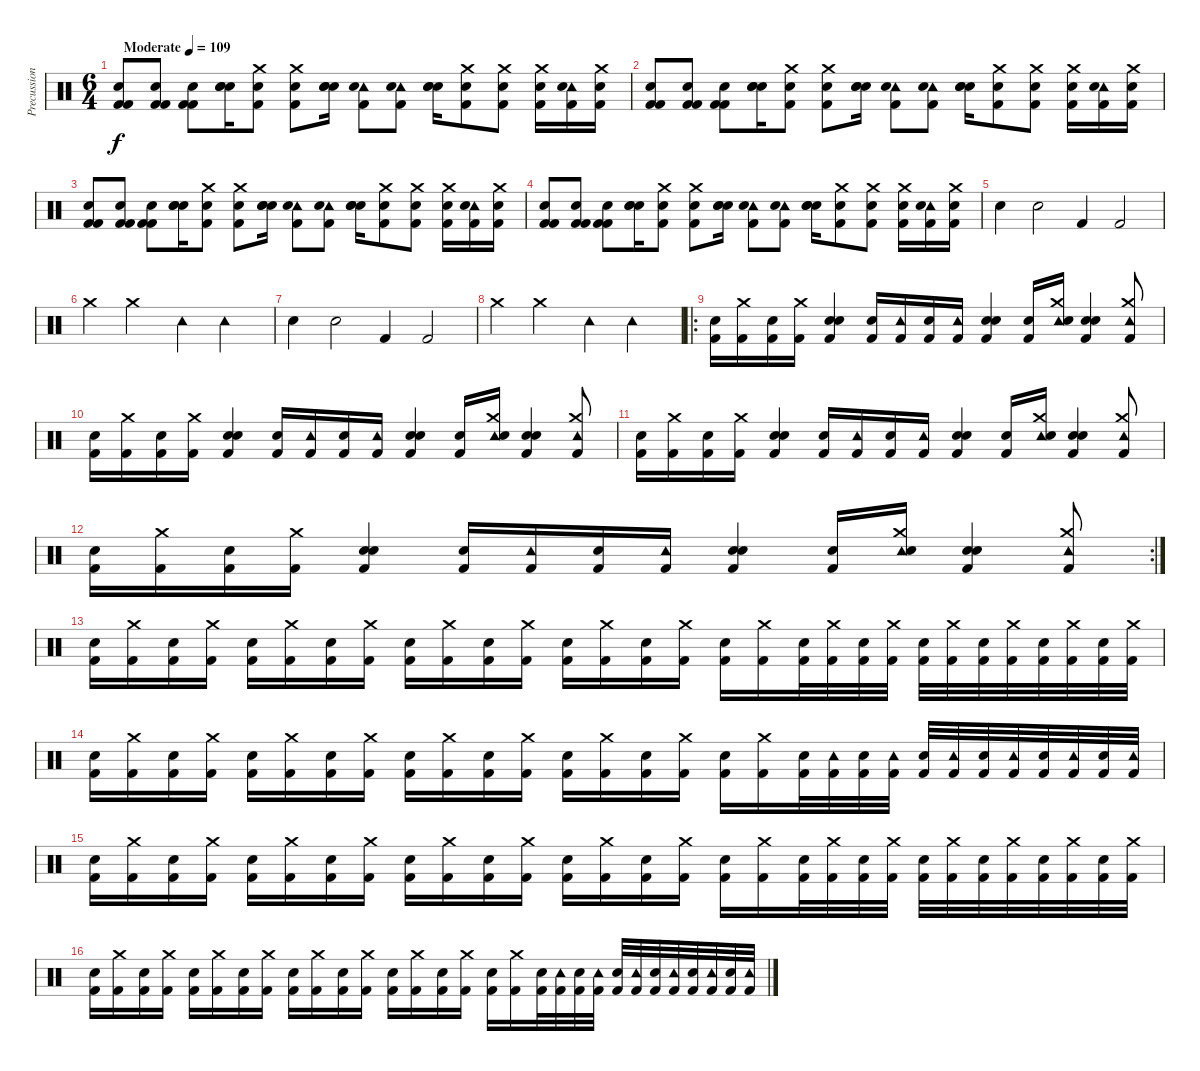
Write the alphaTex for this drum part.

\track ("Precussion" "Precussion") {instrument percussion}
\staff {score}
\articulation defaults
\ts (6 4)
\tempo (109 "Moderate")
\clef neutral
\ks c
("Electric Snare (hit)" "Kick (hit) 2" "Kick (hit) 2").8{dy f} ("Electric Snare (hit)" "Kick (hit) 2" "Kick (hit) 2").8 ("Electric Snare (hit)" "Kick (hit) 2" "Kick (hit) 2").8 ("Electric Snare (hit)" "Electric Snare (hit)" "Electric Snare (hit)").16 ("Crash medium (hit)" "Electric Snare (hit)" "Kick (hit) 2").8 ("Crash medium (hit)" "Electric Snare (hit)" "Kick (hit) 2").8 ("Electric Snare (hit)" "Electric Snare (hit)" "Electric Snare (hit)").16 ("Tambourine (hit)" "Electric Snare (hit)" "Kick (hit) 2").8 ("Tambourine (hit)" "Electric Snare (hit)" "Kick (hit) 2").8 ("Electric Snare (hit)" "Electric Snare (hit)" "Electric Snare (hit)").16 ("Crash medium (hit)" "Electric Snare (hit)" "Kick (hit) 2").8 ("Crash medium (hit)" "Electric Snare (hit)" "Kick (hit) 2").8 ("Crash medium (hit)" "Electric Snare (hit)" "Kick (hit) 2").16 ("Tambourine (hit)" "Electric Snare (hit)" "Kick (hit) 2").16 ("Crash medium (hit)" "Electric Snare (hit)" "Kick (hit) 2").16 |
("Electric Snare (hit)" "Kick (hit) 2" "Kick (hit) 2").8 ("Electric Snare (hit)" "Kick (hit) 2" "Kick (hit) 2").8 ("Electric Snare (hit)" "Kick (hit) 2" "Kick (hit) 2").8 ("Electric Snare (hit)" "Electric Snare (hit)" "Electric Snare (hit)").16 ("Crash medium (hit)" "Electric Snare (hit)" "Kick (hit) 2").8 ("Crash medium (hit)" "Electric Snare (hit)" "Kick (hit) 2").8 ("Electric Snare (hit)" "Electric Snare (hit)" "Electric Snare (hit)").16 ("Tambourine (hit)" "Electric Snare (hit)" "Kick (hit) 2").8 ("Tambourine (hit)" "Electric Snare (hit)" "Kick (hit) 2").8 ("Electric Snare (hit)" "Electric Snare (hit)" "Electric Snare (hit)").16 ("Crash medium (hit)" "Electric Snare (hit)" "Kick (hit) 2").8 ("Crash medium (hit)" "Electric Snare (hit)" "Kick (hit) 2").8 ("Crash medium (hit)" "Electric Snare (hit)" "Kick (hit) 2").16 ("Tambourine (hit)" "Electric Snare (hit)" "Kick (hit) 2").16 ("Crash medium (hit)" "Electric Snare (hit)" "Kick (hit) 2").16 |
("Electric Snare (hit)" "Kick (hit) 2" "Kick (hit) 2").8 ("Electric Snare (hit)" "Kick (hit) 2" "Kick (hit) 2").8 ("Electric Snare (hit)" "Kick (hit) 2" "Kick (hit) 2").8 ("Electric Snare (hit)" "Electric Snare (hit)" "Electric Snare (hit)").16 ("Crash medium (hit)" "Electric Snare (hit)" "Kick (hit) 2").8 ("Crash medium (hit)" "Electric Snare (hit)" "Kick (hit) 2").8 ("Electric Snare (hit)" "Electric Snare (hit)" "Electric Snare (hit)").16 ("Tambourine (hit)" "Electric Snare (hit)" "Kick (hit) 2").8 ("Tambourine (hit)" "Electric Snare (hit)" "Kick (hit) 2").8 ("Electric Snare (hit)" "Electric Snare (hit)" "Electric Snare (hit)").16 ("Crash medium (hit)" "Electric Snare (hit)" "Kick (hit) 2").8 ("Crash medium (hit)" "Electric Snare (hit)" "Kick (hit) 2").8 ("Crash medium (hit)" "Electric Snare (hit)" "Kick (hit) 2").16 ("Tambourine (hit)" "Electric Snare (hit)" "Kick (hit) 2").16 ("Crash medium (hit)" "Electric Snare (hit)" "Kick (hit) 2").16 |
("Electric Snare (hit)" "Kick (hit) 2" "Kick (hit) 2").8 ("Electric Snare (hit)" "Kick (hit) 2" "Kick (hit) 2").8 ("Electric Snare (hit)" "Kick (hit) 2" "Kick (hit) 2").8 ("Electric Snare (hit)" "Electric Snare (hit)" "Electric Snare (hit)").16 ("Crash medium (hit)" "Electric Snare (hit)" "Kick (hit) 2").8 ("Crash medium (hit)" "Electric Snare (hit)" "Kick (hit) 2").8 ("Electric Snare (hit)" "Electric Snare (hit)" "Electric Snare (hit)").16 ("Tambourine (hit)" "Electric Snare (hit)" "Kick (hit) 2").8 ("Tambourine (hit)" "Electric Snare (hit)" "Kick (hit) 2").8 ("Electric Snare (hit)" "Electric Snare (hit)" "Electric Snare (hit)").16 ("Crash medium (hit)" "Electric Snare (hit)" "Kick (hit) 2").8 ("Crash medium (hit)" "Electric Snare (hit)" "Kick (hit) 2").8 ("Crash medium (hit)" "Electric Snare (hit)" "Kick (hit) 2").16 ("Tambourine (hit)" "Electric Snare (hit)" "Kick (hit) 2").16 ("Crash medium (hit)" "Electric Snare (hit)" "Kick (hit) 2").16 |
"Electric Snare (hit)".4 "Electric Snare (hit)".2 "Kick (hit) 2".4 "Kick (hit) 2".2 |
"Crash medium (hit)".4 "Crash medium (hit)".2 "Tambourine (hit)".4 "Tambourine (hit)".2 |
"Electric Snare (hit)".4 "Electric Snare (hit)".2 "Kick (hit) 2".4 "Kick (hit) 2".2 |
"Crash medium (hit)".4 "Crash medium (hit)".2 "Tambourine (hit)".4 "Tambourine (hit)".2 |
\ro
("Electric Snare (hit)" "Kick (hit) 2").16 ("Crash medium (hit)" "Kick (hit) 2").16 ("Electric Snare (hit)" "Kick (hit) 2").16 ("Crash medium (hit)" "Kick (hit) 2").16 ("Electric Snare (hit)" "Electric Snare (hit)" "Kick (hit) 2").4 ("Electric Snare (hit)" "Kick (hit) 2").16 ("Tambourine (hit)" "Kick (hit) 2").16 ("Electric Snare (hit)" "Kick (hit) 2").16 ("Tambourine (hit)" "Kick (hit) 2").16 ("Electric Snare (hit)" "Electric Snare (hit)" "Kick (hit) 2").4 ("Electric Snare (hit)" "Kick (hit) 2").16 ("Tambourine (hit)" "Crash medium (hit)" "Electric Snare (hit)").16 ("Electric Snare (hit)" "Electric Snare (hit)" "Kick (hit) 2").4 ("Crash medium (hit)" "Kick (hit) 2" "Tambourine (hit)").8 |
("Electric Snare (hit)" "Kick (hit) 2").16 ("Crash medium (hit)" "Kick (hit) 2").16 ("Electric Snare (hit)" "Kick (hit) 2").16 ("Crash medium (hit)" "Kick (hit) 2").16 ("Electric Snare (hit)" "Electric Snare (hit)" "Kick (hit) 2").4 ("Electric Snare (hit)" "Kick (hit) 2").16 ("Tambourine (hit)" "Kick (hit) 2").16 ("Electric Snare (hit)" "Kick (hit) 2").16 ("Tambourine (hit)" "Kick (hit) 2").16 ("Electric Snare (hit)" "Electric Snare (hit)" "Kick (hit) 2").4 ("Electric Snare (hit)" "Kick (hit) 2").16 ("Tambourine (hit)" "Crash medium (hit)" "Electric Snare (hit)").16 ("Electric Snare (hit)" "Electric Snare (hit)" "Kick (hit) 2").4 ("Crash medium (hit)" "Kick (hit) 2" "Tambourine (hit)").8 |
("Electric Snare (hit)" "Kick (hit) 2").16 ("Crash medium (hit)" "Kick (hit) 2").16 ("Electric Snare (hit)" "Kick (hit) 2").16 ("Crash medium (hit)" "Kick (hit) 2").16 ("Electric Snare (hit)" "Electric Snare (hit)" "Kick (hit) 2").4 ("Electric Snare (hit)" "Kick (hit) 2").16 ("Tambourine (hit)" "Kick (hit) 2").16 ("Electric Snare (hit)" "Kick (hit) 2").16 ("Tambourine (hit)" "Kick (hit) 2").16 ("Electric Snare (hit)" "Electric Snare (hit)" "Kick (hit) 2").4 ("Electric Snare (hit)" "Kick (hit) 2").16 ("Tambourine (hit)" "Crash medium (hit)" "Electric Snare (hit)").16 ("Electric Snare (hit)" "Electric Snare (hit)" "Kick (hit) 2").4 ("Crash medium (hit)" "Kick (hit) 2" "Tambourine (hit)").8 |
\rc 2
("Electric Snare (hit)" "Kick (hit) 2").16 ("Crash medium (hit)" "Kick (hit) 2").16 ("Electric Snare (hit)" "Kick (hit) 2").16 ("Crash medium (hit)" "Kick (hit) 2").16 ("Electric Snare (hit)" "Electric Snare (hit)" "Kick (hit) 2").4 ("Electric Snare (hit)" "Kick (hit) 2").16 ("Tambourine (hit)" "Kick (hit) 2").16 ("Electric Snare (hit)" "Kick (hit) 2").16 ("Tambourine (hit)" "Kick (hit) 2").16 ("Electric Snare (hit)" "Electric Snare (hit)" "Kick (hit) 2").4 ("Electric Snare (hit)" "Kick (hit) 2").16 ("Tambourine (hit)" "Crash medium (hit)" "Electric Snare (hit)").16 ("Electric Snare (hit)" "Electric Snare (hit)" "Kick (hit) 2").4 ("Crash medium (hit)" "Kick (hit) 2" "Tambourine (hit)").8 |
("Electric Snare (hit)" "Kick (hit) 2").16 ("Crash medium (hit)" "Kick (hit) 2").16 ("Electric Snare (hit)" "Kick (hit) 2").16 ("Crash medium (hit)" "Kick (hit) 2").16 ("Electric Snare (hit)" "Kick (hit) 2").16 ("Crash medium (hit)" "Kick (hit) 2").16 ("Electric Snare (hit)" "Kick (hit) 2").16 ("Crash medium (hit)" "Kick (hit) 2").16 ("Electric Snare (hit)" "Kick (hit) 2").16 ("Crash medium (hit)" "Kick (hit) 2").16 ("Electric Snare (hit)" "Kick (hit) 2").16 ("Crash medium (hit)" "Kick (hit) 2").16 ("Electric Snare (hit)" "Kick (hit) 2").16 ("Crash medium (hit)" "Kick (hit) 2").16 ("Electric Snare (hit)" "Kick (hit) 2").16 ("Crash medium (hit)" "Kick (hit) 2").16 ("Electric Snare (hit)" "Kick (hit) 2").16 ("Crash medium (hit)" "Kick (hit) 2").16 ("Electric Snare (hit)" "Kick (hit) 2").32 ("Crash medium (hit)" "Kick (hit) 2").32 ("Electric Snare (hit)" "Kick (hit) 2").32 ("Crash medium (hit)" "Kick (hit) 2").32 ("Electric Snare (hit)" "Kick (hit) 2").32 ("Crash medium (hit)" "Kick (hit) 2").32 ("Electric Snare (hit)" "Kick (hit) 2").32 ("Crash medium (hit)" "Kick (hit) 2").32 ("Electric Snare (hit)" "Kick (hit) 2").32 ("Crash medium (hit)" "Kick (hit) 2").32 ("Electric Snare (hit)" "Kick (hit) 2").32 ("Crash medium (hit)" "Kick (hit) 2").32 |
("Electric Snare (hit)" "Kick (hit) 2").16 ("Crash medium (hit)" "Kick (hit) 2").16 ("Electric Snare (hit)" "Kick (hit) 2").16 ("Crash medium (hit)" "Kick (hit) 2").16 ("Electric Snare (hit)" "Kick (hit) 2").16 ("Crash medium (hit)" "Kick (hit) 2").16 ("Electric Snare (hit)" "Kick (hit) 2").16 ("Crash medium (hit)" "Kick (hit) 2").16 ("Electric Snare (hit)" "Kick (hit) 2").16 ("Crash medium (hit)" "Kick (hit) 2").16 ("Electric Snare (hit)" "Kick (hit) 2").16 ("Crash medium (hit)" "Kick (hit) 2").16 ("Electric Snare (hit)" "Kick (hit) 2").16 ("Crash medium (hit)" "Kick (hit) 2").16 ("Electric Snare (hit)" "Kick (hit) 2").16 ("Crash medium (hit)" "Kick (hit) 2").16 ("Electric Snare (hit)" "Kick (hit) 2").16 ("Crash medium (hit)" "Kick (hit) 2").16 ("Electric Snare (hit)" "Kick (hit) 2").32 ("Tambourine (hit)" "Kick (hit) 2").32 ("Electric Snare (hit)" "Kick (hit) 2").32 ("Tambourine (hit)" "Kick (hit) 2").32 ("Electric Snare (hit)" "Kick (hit) 2").32 ("Tambourine (hit)" "Kick (hit) 2").32 ("Electric Snare (hit)" "Kick (hit) 2").32 ("Tambourine (hit)" "Kick (hit) 2").32 ("Electric Snare (hit)" "Kick (hit) 2").32 ("Tambourine (hit)" "Kick (hit) 2").32 ("Electric Snare (hit)" "Kick (hit) 2").32 ("Tambourine (hit)" "Kick (hit) 2").32 |
("Electric Snare (hit)" "Kick (hit) 2").16 ("Crash medium (hit)" "Kick (hit) 2").16 ("Electric Snare (hit)" "Kick (hit) 2").16 ("Crash medium (hit)" "Kick (hit) 2").16 ("Electric Snare (hit)" "Kick (hit) 2").16 ("Crash medium (hit)" "Kick (hit) 2").16 ("Electric Snare (hit)" "Kick (hit) 2").16 ("Crash medium (hit)" "Kick (hit) 2").16 ("Electric Snare (hit)" "Kick (hit) 2").16 ("Crash medium (hit)" "Kick (hit) 2").16 ("Electric Snare (hit)" "Kick (hit) 2").16 ("Crash medium (hit)" "Kick (hit) 2").16 ("Electric Snare (hit)" "Kick (hit) 2").16 ("Crash medium (hit)" "Kick (hit) 2").16 ("Electric Snare (hit)" "Kick (hit) 2").16 ("Crash medium (hit)" "Kick (hit) 2").16 ("Electric Snare (hit)" "Kick (hit) 2").16 ("Crash medium (hit)" "Kick (hit) 2").16 ("Electric Snare (hit)" "Kick (hit) 2").32 ("Crash medium (hit)" "Kick (hit) 2").32 ("Electric Snare (hit)" "Kick (hit) 2").32 ("Crash medium (hit)" "Kick (hit) 2").32 ("Electric Snare (hit)" "Kick (hit) 2").32 ("Crash medium (hit)" "Kick (hit) 2").32 ("Electric Snare (hit)" "Kick (hit) 2").32 ("Crash medium (hit)" "Kick (hit) 2").32 ("Electric Snare (hit)" "Kick (hit) 2").32 ("Crash medium (hit)" "Kick (hit) 2").32 ("Electric Snare (hit)" "Kick (hit) 2").32 ("Crash medium (hit)" "Kick (hit) 2").32 |
("Electric Snare (hit)" "Kick (hit) 2").16 ("Crash medium (hit)" "Kick (hit) 2").16 ("Electric Snare (hit)" "Kick (hit) 2").16 ("Crash medium (hit)" "Kick (hit) 2").16 ("Electric Snare (hit)" "Kick (hit) 2").16 ("Crash medium (hit)" "Kick (hit) 2").16 ("Electric Snare (hit)" "Kick (hit) 2").16 ("Crash medium (hit)" "Kick (hit) 2").16 ("Electric Snare (hit)" "Kick (hit) 2").16 ("Crash medium (hit)" "Kick (hit) 2").16 ("Electric Snare (hit)" "Kick (hit) 2").16 ("Crash medium (hit)" "Kick (hit) 2").16 ("Electric Snare (hit)" "Kick (hit) 2").16 ("Crash medium (hit)" "Kick (hit) 2").16 ("Electric Snare (hit)" "Kick (hit) 2").16 ("Crash medium (hit)" "Kick (hit) 2").16 ("Electric Snare (hit)" "Kick (hit) 2").16 ("Crash medium (hit)" "Kick (hit) 2").16 ("Electric Snare (hit)" "Kick (hit) 2").32 ("Tambourine (hit)" "Kick (hit) 2").32 ("Electric Snare (hit)" "Kick (hit) 2").32 ("Tambourine (hit)" "Kick (hit) 2").32 ("Electric Snare (hit)" "Kick (hit) 2").32 ("Tambourine (hit)" "Kick (hit) 2").32 ("Electric Snare (hit)" "Kick (hit) 2").32 ("Tambourine (hit)" "Kick (hit) 2").32 ("Electric Snare (hit)" "Kick (hit) 2").32 ("Tambourine (hit)" "Kick (hit) 2").32 ("Electric Snare (hit)" "Kick (hit) 2").32 ("Tambourine (hit)" "Kick (hit) 2").32
